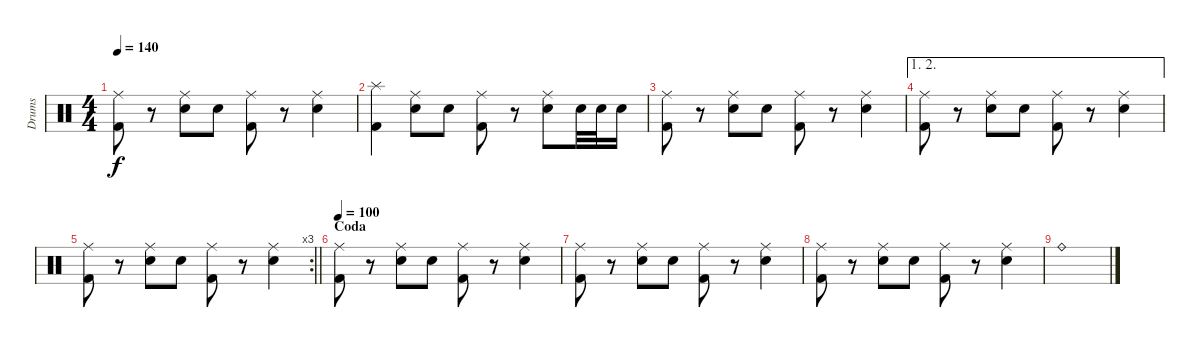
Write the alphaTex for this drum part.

\track ("Drums" "Drums") {instrument percussion}
\staff {score}
\articulation defaults
\ts (4 4)
\tempo 140
\clef neutral
\ks c
("Ride (middle)" "Kick (hit) 2").8{dy f} r.8 ("Ride (middle)" "Snare (hit) 2").8 "Snare (hit) 2".8 ("Ride (middle)" "Kick (hit) 2").8 r.8 ("Ride (middle)" "Snare (hit) 2").4 |
("Splash (hit)" "Kick (hit) 2").4 ("Ride (middle)" "Snare (hit) 2").8 "Snare (hit) 2".8 ("Ride (middle)" "Kick (hit) 2").8 r.8 ("Ride (middle)" "Snare (hit) 2").8 "Snare (hit) 2".32 "Snare (hit) 2".32 "Snare (hit) 2".16 |
("Ride (middle)" "Kick (hit) 2").8 r.8 ("Ride (middle)" "Snare (hit) 2").8 "Snare (hit) 2".8 ("Ride (middle)" "Kick (hit) 2").8 r.8 ("Ride (middle)" "Snare (hit) 2").4 |
\ae (1 2)
("Ride (middle)" "Kick (hit) 2").8 r.8 ("Ride (middle)" "Snare (hit) 2").8 "Snare (hit) 2".8 ("Ride (middle)" "Kick (hit) 2").8 r.8 ("Ride (middle)" "Snare (hit) 2").4 |
\rc 3
\barLineRight lightlight
("Ride (middle)" "Kick (hit) 2").8 r.8 ("Ride (middle)" "Snare (hit) 2").8 "Snare (hit) 2".8 ("Ride (middle)" "Kick (hit) 2").8 r.8 ("Ride (middle)" "Snare (hit) 2").4 |
\section ("" "Coda")
\tempo 100
("Ride (middle)" "Kick (hit) 2").8 r.8 ("Ride (middle)" "Snare (hit) 2").8 "Snare (hit) 2".8 ("Ride (middle)" "Kick (hit) 2").8 r.8 ("Ride (middle)" "Snare (hit) 2").4 |
("Ride (middle)" "Kick (hit) 2").8 r.8 ("Ride (middle)" "Snare (hit) 2").8 "Snare (hit) 2".8 ("Ride (middle)" "Kick (hit) 2").8 r.8 ("Ride (middle)" "Snare (hit) 2").4 |
("Ride (middle)" "Kick (hit) 2").8 r.8 ("Ride (middle)" "Snare (hit) 2").8 "Snare (hit) 2".8 ("Ride (middle)" "Kick (hit) 2").8 r.8 ("Ride (middle)" "Snare (hit) 2").4 |
"Ride (bell)".1
